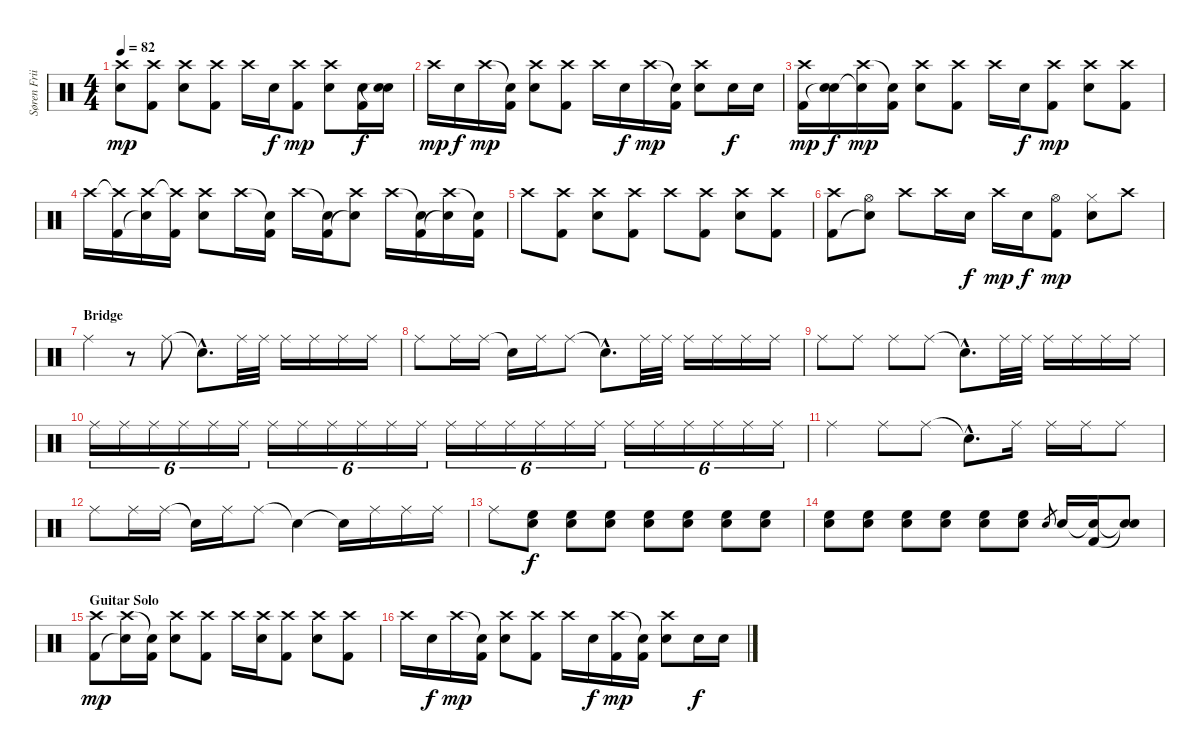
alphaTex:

\track ("Søren Friis" "Søren Frii") {instrument percussion}
\staff {score}
\articulation defaults
\ts (4 4)
\tempo 82
\clef neutral
\ks c
("Crash high (hit)" "Snare (hit) 2").8{dy mp} ("Crash high (hit)" "Kick (hit) 2").8 ("Crash high (hit)" "Snare (hit) 2").8 ("Crash high (hit)" "Kick (hit) 2").8 "Crash high (hit)".16 "Snare (hit) 2".16{dy f} ("Crash high (hit)" "Kick (hit) 2").8{dy mp} ("Crash high (hit)" "Snare (hit) 2").8 ("Snare (hit) 2" "Kick (hit) 2").16{dy f} ("Snare (hit) 2" "Snare (hit)"{t}).16 |
"Crash high (hit)".16{dy mp} "Snare (hit) 2".16{dy f} "Crash high (hit)".16{dy mp} ("Snare (hit)"{t} "Kick (hit) 2").16 ("Crash high (hit)" "Snare (hit) 2").8 ("Crash high (hit)" "Kick (hit) 2").8 "Crash high (hit)".16 "Snare (hit) 2".16{dy f} "Crash high (hit)".16{dy mp} ("Snare (hit)"{t} "Kick (hit) 2").16 ("Crash high (hit)" "Snare (hit) 2").8 "Snare (hit) 2".16{dy f} "Snare (hit) 2".16 |
("Crash high (hit)" "Kick (hit) 2").16{dy mp} ("Snare (hit) 2" "Snare (hit)"{t}).16{dy f} ("Crash high (hit)" "Snare (hit)"{t}).16{dy mp} ("Snare (hit)"{t} "Kick (hit) 2").16 ("Crash high (hit)" "Snare (hit) 2").8 ("Crash high (hit)" "Kick (hit) 2").8 "Crash high (hit)".16 "Snare (hit) 2".16{dy f} ("Crash high (hit)" "Kick (hit) 2").8{dy mp} ("Crash high (hit)" "Snare (hit) 2").8 ("Crash high (hit)" "Kick (hit) 2").8 |
"Crash high (hit)".16 ("Crash high (hit)"{t} "Kick (hit) 2").16 ("Crash high (hit)" "Snare (hit)"{t}).16 ("Crash high (hit)"{t} "Kick (hit) 2").16 ("Crash high (hit)" "Snare (hit) 2").8 "Crash high (hit)".16 ("Snare (hit)"{t} "Kick (hit) 2").16 "Crash high (hit)".16 ("Snare (hit)"{t} "Kick (hit) 2").16 ("Crash high (hit)" "Snare (hit)"{t}).8 "Crash high (hit)".16 ("Snare (hit)"{t} "Kick (hit) 2").16 ("Crash high (hit)" "Snare (hit)"{t}).16 ("Snare (hit)"{t} "Kick (hit) 2").16 |
"Crash high (hit)".8 ("Crash high (hit)" "Kick (hit) 2").8 ("Crash high (hit)" "Snare (hit) 2").8 ("Crash high (hit)" "Kick (hit) 2").8 "Crash high (hit)".8 ("Crash high (hit)" "Kick (hit) 2").8 ("Crash high (hit)" "Snare (hit) 2").8 ("Crash high (hit)" "Kick (hit) 2").8 |
("Crash high (hit)" "Kick (hit) 2").8 ("Hi-Hat (open)" "Snare (hit)"{t}).8 "Crash high (hit)".8 "Crash high (hit)".16 "Snare (hit) 2".16{dy f} "Crash high (hit)".16{dy mp} "Snare (hit) 2".16{dy f} ("Hi-Hat (open)" "Kick (hit) 2").8{dy mp} ("Hi-Hat (closed)" "Snare (hit) 2").8 "Crash high (hit)".8 |
\section ("" "Bridge")
"Ride (middle)".4 r.8 "Ride (middle)".8 "Snare (hit)"{hac t}.8{d} "Ride (middle)".32 "Ride (middle)".32 "Ride (middle)".16 "Ride (middle)".16 "Ride (middle)".16 "Ride (middle)".16 |
"Ride (middle)".8 "Ride (middle)".16 "Ride (middle)".16 "Snare (hit)"{t}.16 "Ride (middle)".16 "Ride (middle)".8 "Snare (hit)"{hac t}.8{d} "Ride (middle)".32 "Ride (middle)".32 "Ride (middle)".16 "Ride (middle)".16 "Ride (middle)".16 "Ride (middle)".16 |
"Ride (middle)".8 "Ride (middle)".8 "Ride (middle)".8 "Ride (middle)".8 "Snare (hit)"{hac t}.8{d} "Ride (middle)".32 "Ride (middle)".32 "Ride (middle)".16 "Ride (middle)".16 "Ride (middle)".16 "Ride (middle)".16 |
"Ride (middle)".16{tu (6 4)} "Ride (middle)".16{tu (6 4)} "Ride (middle)".16{tu (6 4)} "Ride (middle)".16{tu (6 4)} "Ride (middle)".16{tu (6 4)} "Ride (middle)".16{tu (6 4)} "Ride (middle)".16{tu (6 4)} "Ride (middle)".16{tu (6 4)} "Ride (middle)".16{tu (6 4)} "Ride (middle)".16{tu (6 4)} "Ride (middle)".16{tu (6 4)} "Ride (middle)".16{tu (6 4)} "Ride (middle)".16{tu (6 4)} "Ride (middle)".16{tu (6 4)} "Ride (middle)".16{tu (6 4)} "Ride (middle)".16{tu (6 4)} "Ride (middle)".16{tu (6 4)} "Ride (middle)".16{tu (6 4)} "Ride (middle)".16{tu (6 4)} "Ride (middle)".16{tu (6 4)} "Ride (middle)".16{tu (6 4)} "Ride (middle)".16{tu (6 4)} "Ride (middle)".16{tu (6 4)} "Ride (middle)".16{tu (6 4)} |
"Ride (middle)".4 "Ride (middle)".8 "Ride (middle)".8 "Snare (hit)"{hac t}.8{d} "Ride (middle)".16 "Ride (middle)".16 "Ride (middle)".16 "Ride (middle)".8 |
"Ride (middle)".8 "Ride (middle)".16 "Ride (middle)".16 "Snare (hit)"{t}.16 "Ride (middle)".16 "Ride (middle)".8 "Snare (hit)"{t}.4 "Snare (hit)"{t}.16 "Ride (middle)".16 "Ride (middle)".16 "Ride (middle)".16 |
"Ride (middle)".8 ("Snare (hit) 2" "High Floor Tom (hit)").8{dy f} ("Snare (hit) 2" "High Floor Tom (hit)").8 ("Snare (hit) 2" "High Floor Tom (hit)").8 ("Snare (hit) 2" "High Floor Tom (hit)").8 ("Snare (hit) 2" "High Floor Tom (hit)").8 ("Snare (hit) 2" "High Floor Tom (hit)").8 ("Snare (hit) 2" "High Floor Tom (hit)").8 |
("Snare (hit) 2" "High Floor Tom (hit)").8 ("Snare (hit) 2" "High Floor Tom (hit)").8 ("Snare (hit) 2" "High Floor Tom (hit)").8 ("Snare (hit) 2" "High Floor Tom (hit)").8 ("Snare (hit) 2" "High Floor Tom (hit)").8 ("Snare (hit) 2" "High Floor Tom (hit)").8 "Snare (hit) 2".8{gr} "Snare (hit) 2".16 ("Snare (hit)"{t} "Kick (hit) 2").16 ("Snare (hit)"{t} "Snare (hit)"{t}).8 |
\section ("" "Guitar Solo")
("Crash high (hit)" "Kick (hit) 2").8{dy mp} ("Crash high (hit)" "Snare (hit)"{t}).16 ("Snare (hit)"{t} "Kick (hit) 2").16 ("Crash high (hit)" "Snare (hit) 2").8 ("Crash high (hit)" "Kick (hit) 2").8 "Crash high (hit)".16 ("Crash high (hit)" "Snare (hit) 2").16 ("Crash high (hit)" "Kick (hit) 2").8 ("Crash high (hit)" "Snare (hit) 2").8 ("Crash high (hit)" "Kick (hit) 2").8 |
"Crash high (hit)".16 "Snare (hit) 2".16{dy f} "Crash high (hit)".16{dy mp} ("Snare (hit)"{t} "Kick (hit) 2").16 ("Crash high (hit)" "Snare (hit) 2").8 ("Crash high (hit)" "Kick (hit) 2").8 "Crash high (hit)".16 "Snare (hit) 2".16{dy f} ("Crash high (hit)" "Kick (hit) 2").16{dy mp} ("Snare (hit)"{t} "Kick (hit) 2").16 ("Crash high (hit)" "Snare (hit) 2").8 "Snare (hit) 2".16{dy f} "Snare (hit) 2".16
